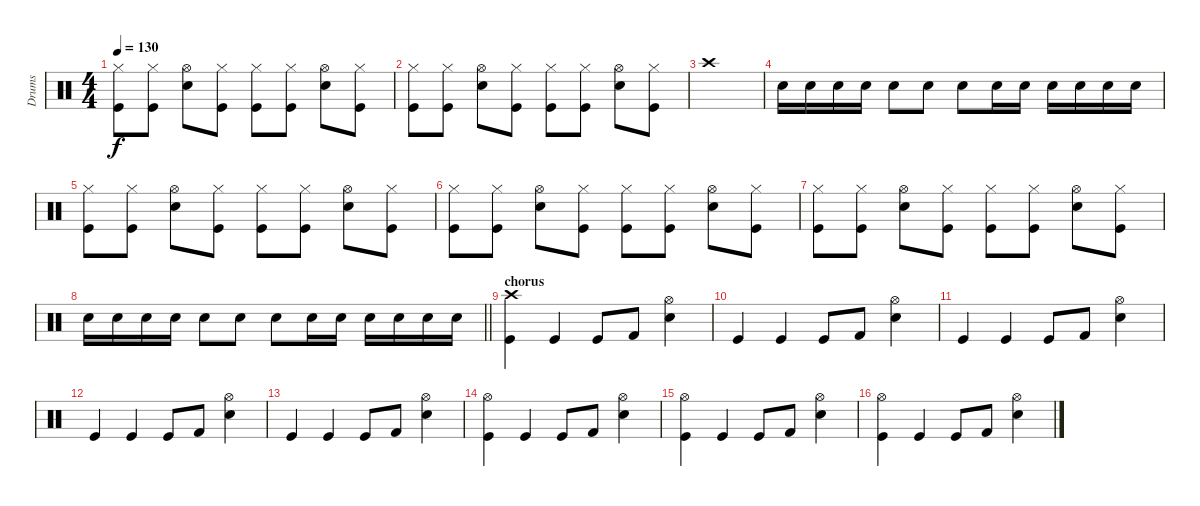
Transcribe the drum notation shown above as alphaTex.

\track ("Drums" "Drums") {instrument percussion}
\staff {score}
\articulation defaults
\ts (4 4)
\tempo 130
\clef neutral
\ks c
("Hi-Hat (closed)" "Kick (hit)").8{dy f} ("Hi-Hat (closed)" "Kick (hit)").8 ("Hi-Hat (open)" "Snare (hit) 2").8 ("Hi-Hat (closed)" "Kick (hit)").8 ("Hi-Hat (closed)" "Kick (hit)").8 ("Hi-Hat (closed)" "Kick (hit)").8 ("Hi-Hat (open)" "Snare (hit) 2").8 ("Hi-Hat (closed)" "Kick (hit)").8 |
("Hi-Hat (closed)" "Kick (hit)").8 ("Hi-Hat (closed)" "Kick (hit)").8 ("Hi-Hat (open)" "Snare (hit) 2").8 ("Hi-Hat (closed)" "Kick (hit)").8 ("Hi-Hat (closed)" "Kick (hit)").8 ("Hi-Hat (closed)" "Kick (hit)").8 ("Hi-Hat (open)" "Snare (hit) 2").8 ("Hi-Hat (closed)" "Kick (hit)").8 |
"Crash high (hit)".1 |
"Snare (hit) 2".16 "Snare (hit) 2".16 "Snare (hit) 2".16 "Snare (hit) 2".16 "Snare (hit) 2".8 "Snare (hit) 2".8 "Snare (hit) 2".8 "Snare (hit) 2".16 "Snare (hit) 2".16 "Snare (hit) 2".16 "Snare (hit) 2".16 "Snare (hit) 2".16 "Snare (hit) 2".16 |
("Hi-Hat (closed)" "Kick (hit)").8 ("Hi-Hat (closed)" "Kick (hit)").8 ("Hi-Hat (open)" "Snare (hit) 2").8 ("Hi-Hat (closed)" "Kick (hit)").8 ("Hi-Hat (closed)" "Kick (hit)").8 ("Hi-Hat (closed)" "Kick (hit)").8 ("Hi-Hat (open)" "Snare (hit) 2").8 ("Hi-Hat (closed)" "Kick (hit)").8 |
("Hi-Hat (closed)" "Kick (hit)").8 ("Hi-Hat (closed)" "Kick (hit)").8 ("Hi-Hat (open)" "Snare (hit) 2").8 ("Hi-Hat (closed)" "Kick (hit)").8 ("Hi-Hat (closed)" "Kick (hit)").8 ("Hi-Hat (closed)" "Kick (hit)").8 ("Hi-Hat (open)" "Snare (hit) 2").8 ("Hi-Hat (closed)" "Kick (hit)").8 |
("Hi-Hat (closed)" "Kick (hit)").8 ("Hi-Hat (closed)" "Kick (hit)").8 ("Hi-Hat (open)" "Snare (hit) 2").8 ("Hi-Hat (closed)" "Kick (hit)").8 ("Hi-Hat (closed)" "Kick (hit)").8 ("Hi-Hat (closed)" "Kick (hit)").8 ("Hi-Hat (open)" "Snare (hit) 2").8 ("Hi-Hat (closed)" "Kick (hit)").8 |
\barLineRight lightlight "Snare (hit) 2".16 "Snare (hit) 2".16 "Snare (hit) 2".16 "Snare (hit) 2".16 "Snare (hit) 2".8 "Snare (hit) 2".8 "Snare (hit) 2".8 "Snare (hit) 2".16 "Snare (hit) 2".16 "Snare (hit) 2".16 "Snare (hit) 2".16 "Snare (hit) 2".16 "Snare (hit) 2".16
|
\section ("" "chorus")
("Kick (hit)" "Crash high (hit)").4 "Kick (hit)".4 "Kick (hit)".8 "Kick (hit) 2".8 ("Snare (hit) 2" "Hi-Hat (open)").4 |
"Kick (hit)".4 "Kick (hit)".4 "Kick (hit)".8 "Kick (hit) 2".8 ("Snare (hit) 2" "Hi-Hat (open)").4 |
"Kick (hit)".4 "Kick (hit)".4 "Kick (hit)".8 "Kick (hit) 2".8 ("Snare (hit) 2" "Hi-Hat (open)").4 |
"Kick (hit)".4 "Kick (hit)".4 "Kick (hit)".8 "Kick (hit) 2".8 ("Snare (hit) 2" "Hi-Hat (open)").4 |
"Kick (hit)".4 "Kick (hit)".4 "Kick (hit)".8 "Kick (hit) 2".8 ("Snare (hit) 2" "Hi-Hat (open)").4 |
("Kick (hit)" "Hi-Hat (open)").4 "Kick (hit)".4 "Kick (hit)".8 "Kick (hit) 2".8 ("Snare (hit) 2" "Hi-Hat (open)").4 |
("Kick (hit)" "Hi-Hat (open)").4 "Kick (hit)".4 "Kick (hit)".8 "Kick (hit) 2".8 ("Snare (hit) 2" "Hi-Hat (open)").4 |
("Kick (hit)" "Hi-Hat (open)").4 "Kick (hit)".4 "Kick (hit)".8 "Kick (hit) 2".8 ("Snare (hit) 2" "Hi-Hat (open)").4
